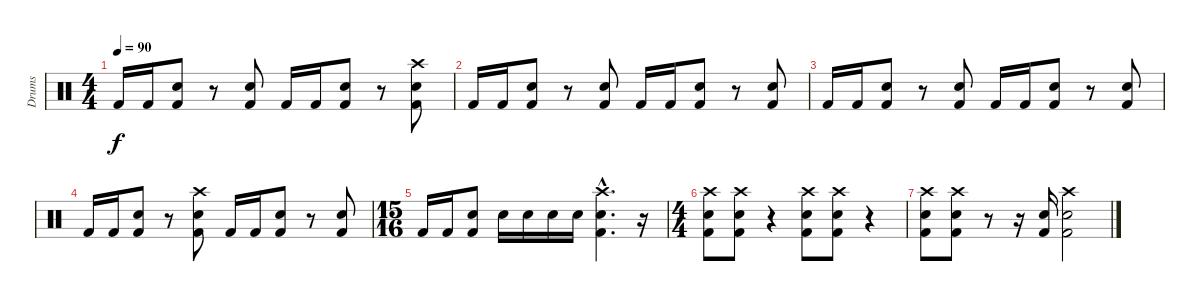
\track ("Drums" "Drums") {instrument percussion}
\staff {score}
\articulation defaults
\ts (4 4)
\tempo 90
\clef neutral
\ks c "Kick (hit) 2".16{dy f} "Kick (hit) 2".16
("Electric Snare (hit)" "Kick (hit) 2").8 r.8 ("Electric Snare (hit)" "Kick (hit) 2").8 "Kick (hit) 2".16 "Kick (hit) 2".16 ("Electric Snare (hit)" "Kick (hit) 2").8 r.8 ("Crash high (hit)" "Electric Snare (hit)" "Kick (hit) 2").8 |
"Kick (hit) 2".16 "Kick (hit) 2".16 ("Electric Snare (hit)" "Kick (hit) 2").8 r.8 ("Electric Snare (hit)" "Kick (hit) 2").8 "Kick (hit) 2".16 "Kick (hit) 2".16 ("Electric Snare (hit)" "Kick (hit) 2").8 r.8 ("Electric Snare (hit)" "Kick (hit) 2").8 |
"Kick (hit) 2".16 "Kick (hit) 2".16 ("Electric Snare (hit)" "Kick (hit) 2").8 r.8 ("Electric Snare (hit)" "Kick (hit) 2").8 "Kick (hit) 2".16 "Kick (hit) 2".16 ("Electric Snare (hit)" "Kick (hit) 2").8 r.8 ("Electric Snare (hit)" "Kick (hit) 2").8 |
"Kick (hit) 2".16 "Kick (hit) 2".16 ("Electric Snare (hit)" "Kick (hit) 2").8 r.8 ("Crash high (hit)" "Electric Snare (hit)" "Kick (hit) 2").8 "Kick (hit) 2".16 "Kick (hit) 2".16 ("Electric Snare (hit)" "Kick (hit) 2").8 r.8 ("Electric Snare (hit)" "Kick (hit) 2").8 |
\ts (15 16)
"Kick (hit) 2".16 "Kick (hit) 2".16 ("Electric Snare (hit)" "Kick (hit) 2").8 "Electric Snare (hit)".16 "Electric Snare (hit)".16 "Electric Snare (hit)".16 "Electric Snare (hit)".16 ("Crash high (hit)"{hac} "Electric Snare (hit)"{hac} "Kick (hit) 2"{hac}).4{d} r.16 |
\ts (4 4)
("Crash high (hit)" "Electric Snare (hit)" "Kick (hit) 2").8 ("Crash high (hit)" "Electric Snare (hit)" "Kick (hit) 2").8 r.4 ("Crash high (hit)" "Electric Snare (hit)" "Kick (hit) 2").8 ("Crash high (hit)" "Electric Snare (hit)" "Kick (hit) 2").8 r.4 |
("Crash high (hit)" "Electric Snare (hit)" "Kick (hit) 2").8 ("Crash high (hit)" "Electric Snare (hit)" "Kick (hit) 2").8 r.8 r.16 ("Snare (hit) 2" "Kick (hit) 2").16 ("Crash high (hit)" "Electric Snare (hit)" "Kick (hit) 2").2
